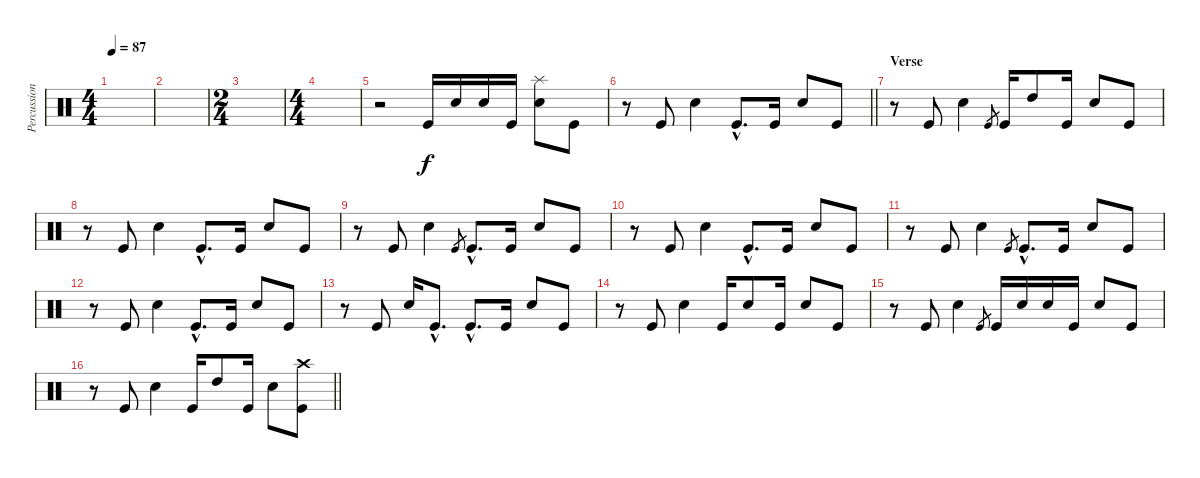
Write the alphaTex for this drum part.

\track ("Percussion" "Percussion") {instrument percussion}
\staff {score}
\articulation defaults
\ts (4 4)
\tempo 87
\clef neutral
\ks c
|
|
\ts (2 4)
|
\ts (4 4)
|
r.2 "Kick (hit)".16 "Electric Snare (hit)".16 "Electric Snare (hit)".16 "Kick (hit)".16 ("Splash (hit)" "Electric Snare (hit)").8 "Kick (hit)".8 |
\barLineRight lightlight
r.8 "Kick (hit)".8 "Electric Snare (hit)".4 "Kick (hit)"{hac}.8{d} "Kick (hit)".16 "Electric Snare (hit)".8 "Kick (hit)".8 |
\section ("" "Verse")
r.8 "Kick (hit)".8 "Electric Snare (hit)".4 "Kick (hit)".8{gr} "Kick (hit)".16 "High Tom (hit)".8 "Kick (hit)".16 "Electric Snare (hit)".8 "Kick (hit)".8 |
r.8 "Kick (hit)".8 "Electric Snare (hit)".4 "Kick (hit)"{hac}.8{d} "Kick (hit)".16 "Electric Snare (hit)".8 "Kick (hit)".8 |
r.8 "Kick (hit)".8 "Electric Snare (hit)".4 "Kick (hit)".8{gr} "Kick (hit)"{hac}.8{d} "Kick (hit)".16 "Electric Snare (hit)".8 "Kick (hit)".8 |
r.8 "Kick (hit)".8 "Electric Snare (hit)".4 "Kick (hit)"{hac}.8{d} "Kick (hit)".16 "Electric Snare (hit)".8 "Kick (hit)".8 |
r.8 "Kick (hit)".8 "Electric Snare (hit)".4 "Kick (hit)".8{gr} "Kick (hit)"{hac}.8{d} "Kick (hit)".16 "Electric Snare (hit)".8 "Kick (hit)".8 |
r.8 "Kick (hit)".8 "Electric Snare (hit)".4 "Kick (hit)"{hac}.8{d} "Kick (hit)".16 "Electric Snare (hit)".8 "Kick (hit)".8 |
r.8 "Kick (hit)".8 "Electric Snare (hit)".16 "Kick (hit)"{hac}.8{d} "Kick (hit)"{hac}.8{d} "Kick (hit)".16 "Electric Snare (hit)".8 "Kick (hit)".8 |
r.8 "Kick (hit)".8 "Electric Snare (hit)".4 "Kick (hit)".16 "Electric Snare (hit)".8 "Kick (hit)".16 "Electric Snare (hit)".8 "Kick (hit)".8 |
r.8 "Kick (hit)".8 "Electric Snare (hit)".4 "Kick (hit)".8{gr} "Kick (hit)".16 "Electric Snare (hit)".16 "Electric Snare (hit)".16 "Kick (hit)".16 "Electric Snare (hit)".8 "Kick (hit)".8 |
\barLineRight lightlight
r.8 "Kick (hit)".8 "Electric Snare (hit)".4 "Kick (hit)".16 "High Tom (hit)".8 "Kick (hit)".16 "Electric Snare (hit)".8 ("Crash high (hit)" "Kick (hit)").8
